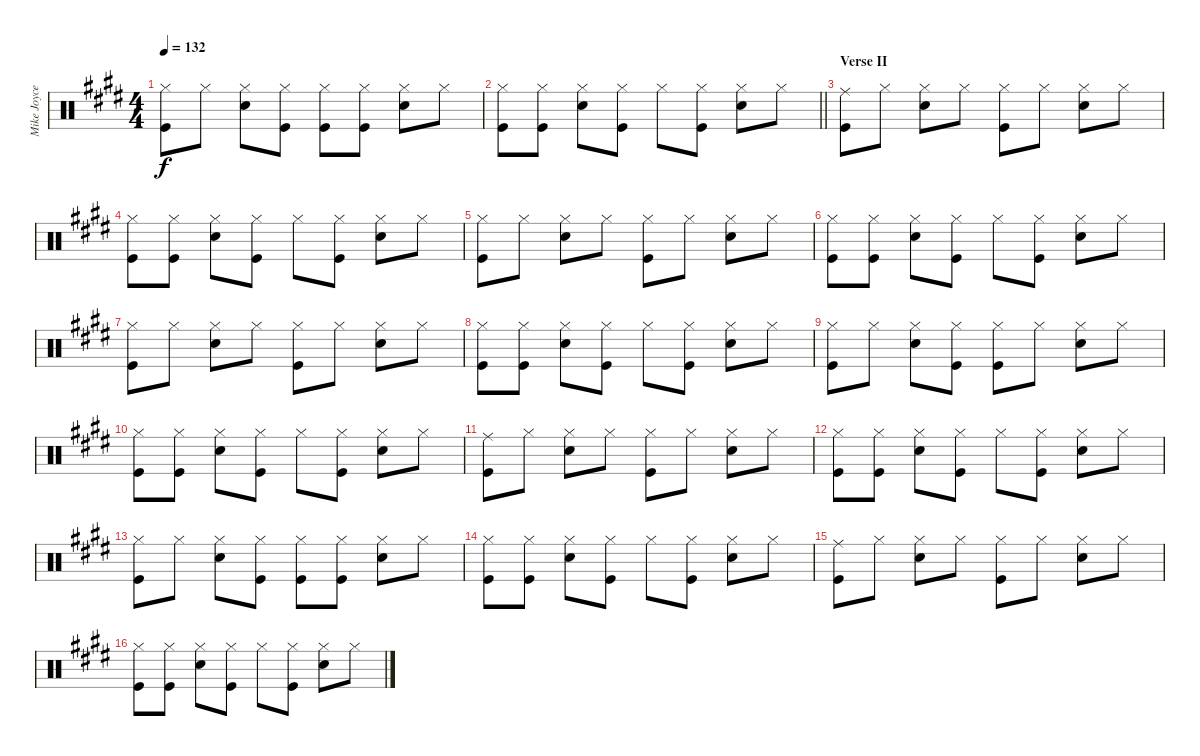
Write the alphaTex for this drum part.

\track ("Mike Joyce's drums" "Mike Joyce") {instrument percussion}
\staff {score}
\articulation defaults
\ts (4 4)
\tempo 132
\clef neutral
\ks e
("Hi-Hat (closed)" "Kick (hit)").8{dy f} "Hi-Hat (closed)".8 ("Hi-Hat (closed)" "Snare (hit) 2").8 ("Hi-Hat (closed)" "Kick (hit)").8 ("Kick (hit)" "Hi-Hat (closed)").8 ("Kick (hit)" "Hi-Hat (closed)").8 ("Snare (hit) 2" "Hi-Hat (closed)").8 "Hi-Hat (closed)".8 |
\barLineRight lightlight
("Hi-Hat (closed)" "Kick (hit)").8 ("Kick (hit)" "Hi-Hat (closed)").8 ("Hi-Hat (closed)" "Snare (hit) 2").8 ("Kick (hit)" "Hi-Hat (closed)").8 "Hi-Hat (closed)".8 ("Hi-Hat (closed)" "Kick (hit)").8 ("Snare (hit) 2" "Hi-Hat (closed)").8 "Hi-Hat (closed)".8 |
\section ("" "Verse II")
("Kick (hit)" "Ride (middle)").8 "Hi-Hat (closed)".8 ("Hi-Hat (closed)" "Snare (hit) 2").8 "Hi-Hat (closed)".8 ("Hi-Hat (closed)" "Kick (hit)").8 "Hi-Hat (closed)".8 ("Hi-Hat (closed)" "Snare (hit) 2").8 "Hi-Hat (closed)".8 |
("Hi-Hat (closed)" "Kick (hit)").8 ("Kick (hit)" "Hi-Hat (closed)").8 ("Hi-Hat (closed)" "Snare (hit) 2").8 ("Kick (hit)" "Hi-Hat (closed)").8 "Hi-Hat (closed)".8 ("Hi-Hat (closed)" "Kick (hit)").8 ("Snare (hit) 2" "Hi-Hat (closed)").8 "Hi-Hat (closed)".8 |
("Hi-Hat (closed)" "Kick (hit)").8 "Hi-Hat (closed)".8 ("Hi-Hat (closed)" "Snare (hit) 2").8 "Hi-Hat (closed)".8 ("Hi-Hat (closed)" "Kick (hit)").8 "Hi-Hat (closed)".8 ("Hi-Hat (closed)" "Snare (hit) 2").8 "Hi-Hat (closed)".8 |
("Hi-Hat (closed)" "Kick (hit)").8 ("Kick (hit)" "Hi-Hat (closed)").8 ("Hi-Hat (closed)" "Snare (hit) 2").8 ("Kick (hit)" "Hi-Hat (closed)").8 "Hi-Hat (closed)".8 ("Hi-Hat (closed)" "Kick (hit)").8 ("Snare (hit) 2" "Hi-Hat (closed)").8 "Hi-Hat (closed)".8 |
("Hi-Hat (closed)" "Kick (hit)").8 "Hi-Hat (closed)".8 ("Hi-Hat (closed)" "Snare (hit) 2").8 "Hi-Hat (closed)".8 ("Hi-Hat (closed)" "Kick (hit)").8 "Hi-Hat (closed)".8 ("Hi-Hat (closed)" "Snare (hit) 2").8 "Hi-Hat (closed)".8 |
("Hi-Hat (closed)" "Kick (hit)").8 ("Kick (hit)" "Hi-Hat (closed)").8 ("Hi-Hat (closed)" "Snare (hit) 2").8 ("Kick (hit)" "Hi-Hat (closed)").8 "Hi-Hat (closed)".8 ("Kick (hit)" "Hi-Hat (closed)").8 ("Snare (hit) 2" "Hi-Hat (closed)").8 "Hi-Hat (closed)".8 |
("Kick (hit)" "Hi-Hat (closed)").8 "Hi-Hat (closed)".8 ("Hi-Hat (closed)" "Snare (hit) 2").8 ("Kick (hit)" "Hi-Hat (closed)").8 ("Hi-Hat (closed)" "Kick (hit)").8 "Hi-Hat (closed)".8 ("Hi-Hat (closed)" "Snare (hit) 2").8 "Hi-Hat (closed)".8 |
("Hi-Hat (closed)" "Kick (hit)").8 ("Kick (hit)" "Hi-Hat (closed)").8 ("Hi-Hat (closed)" "Snare (hit) 2").8 ("Kick (hit)" "Hi-Hat (closed)").8 "Hi-Hat (closed)".8 ("Kick (hit)" "Hi-Hat (closed)").8 ("Hi-Hat (closed)" "Snare (hit) 2").8 "Hi-Hat (closed)".8 |
("Ride (middle)" "Kick (hit)").8 "Hi-Hat (closed)".8 ("Snare (hit) 2" "Hi-Hat (closed)").8 "Hi-Hat (closed)".8 ("Hi-Hat (closed)" "Kick (hit)").8 "Hi-Hat (closed)".8 ("Hi-Hat (closed)" "Snare (hit) 2").8 "Hi-Hat (closed)".8 |
("Hi-Hat (closed)" "Kick (hit)").8 ("Kick (hit)" "Hi-Hat (closed)").8 ("Hi-Hat (closed)" "Snare (hit) 2").8 ("Kick (hit)" "Hi-Hat (closed)").8 "Hi-Hat (closed)".8 ("Hi-Hat (closed)" "Kick (hit)").8 ("Snare (hit) 2" "Hi-Hat (closed)").8 "Hi-Hat (closed)".8 |
("Hi-Hat (closed)" "Kick (hit)").8 "Hi-Hat (closed)".8 ("Hi-Hat (closed)" "Snare (hit) 2").8 ("Hi-Hat (closed)" "Kick (hit)").8 ("Kick (hit)" "Hi-Hat (closed)").8 ("Kick (hit)" "Hi-Hat (closed)").8 ("Snare (hit) 2" "Hi-Hat (closed)").8 "Hi-Hat (closed)".8 |
("Hi-Hat (closed)" "Kick (hit)").8 ("Kick (hit)" "Hi-Hat (closed)").8 ("Hi-Hat (closed)" "Snare (hit) 2").8 ("Kick (hit)" "Hi-Hat (closed)").8 "Hi-Hat (closed)".8 ("Hi-Hat (closed)" "Kick (hit)").8 ("Snare (hit) 2" "Hi-Hat (closed)").8 "Hi-Hat (closed)".8 |
("Ride (middle)" "Kick (hit)").8 "Hi-Hat (closed)".8 ("Snare (hit) 2" "Hi-Hat (closed)").8 "Hi-Hat (closed)".8 ("Hi-Hat (closed)" "Kick (hit)").8 "Hi-Hat (closed)".8 ("Hi-Hat (closed)" "Snare (hit) 2").8 "Hi-Hat (closed)".8 |
("Hi-Hat (closed)" "Kick (hit)").8 ("Kick (hit)" "Hi-Hat (closed)").8 ("Hi-Hat (closed)" "Snare (hit) 2").8 ("Kick (hit)" "Hi-Hat (closed)").8 "Hi-Hat (closed)".8 ("Hi-Hat (closed)" "Kick (hit)").8 ("Snare (hit) 2" "Hi-Hat (closed)").8 "Hi-Hat (closed)".8
